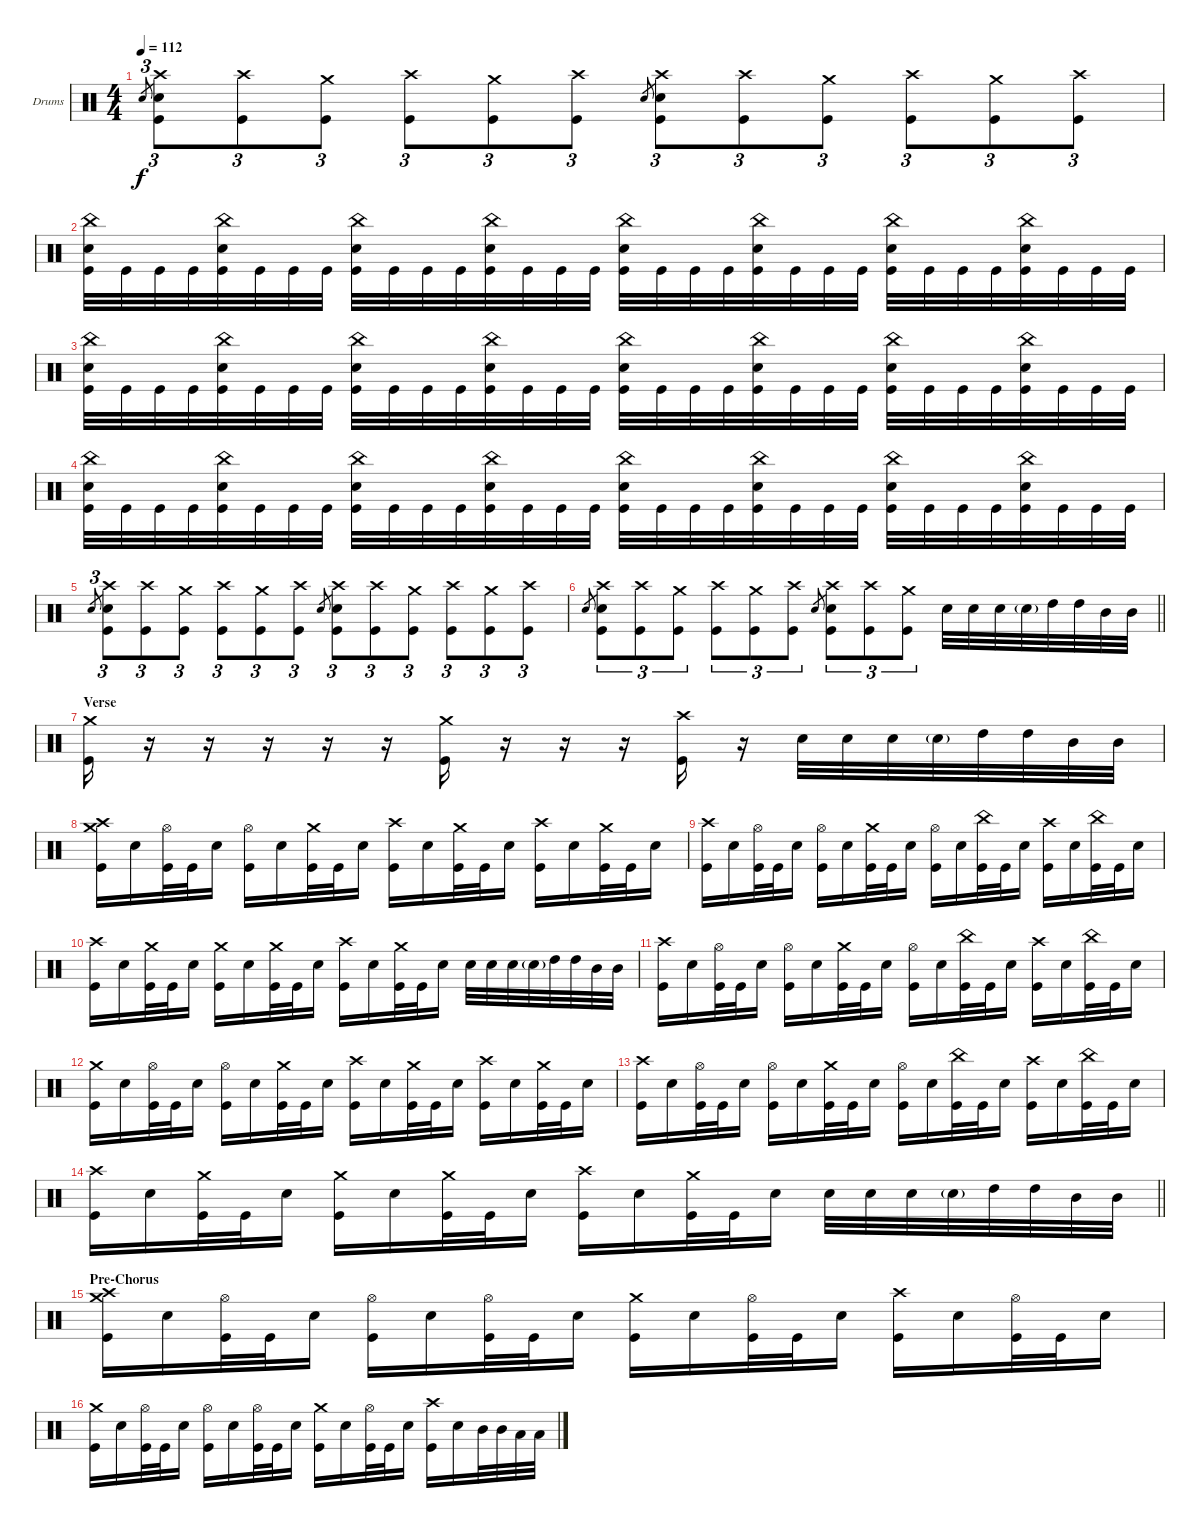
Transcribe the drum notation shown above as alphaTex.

\bracketExtendMode groupsimilarinstruments
\firstSystemTrackNameOrientation horizontal
\otherSystemsTrackNameOrientation horizontal
\track ("Drumkit" "Drums") {instrument percussion}
\staff {score}
\articulation defaults
\ts (4 4)
\tempo 112
\clef neutral
\scale
0.333333
\ks c "Snare (hit) 2".8{tu (3 2) gr dy f}
("Kick (hit)" "Crash high (hit)" "Snare (hit) 2").8{tu (3 2)} ("Kick (hit)" "Crash high (hit)").8{tu (3 2)} ("Kick (hit)" "Crash medium (hit)").8{tu (3 2)} ("Kick (hit)" "Crash high (hit)").8{tu (3 2)} ("Kick (hit)" "Crash medium (hit)").8{tu (3 2)} ("Kick (hit)" "Crash high (hit)").8{tu (3 2)} "Snare (hit) 2".8{tu (3 2) gr} ("Kick (hit)" "Crash high (hit)" "Snare (hit) 2").8{tu (3 2)} ("Kick (hit)" "Crash high (hit)").8{tu (3 2)} ("Kick (hit)" "Crash medium (hit)").8{tu (3 2)} ("Kick (hit)" "Crash high (hit)").8{tu (3 2)} ("Kick (hit)" "Crash medium (hit)").8{tu (3 2)} ("Kick (hit)" "Crash high (hit)").8{tu (3 2)} |
\scale
0.333333 ("Kick (hit)" "China (hit)" "Snare (hit) 2").32 "Kick (hit)".32 "Kick (hit)".32 "Kick (hit)".32 ("Kick (hit)" "China (hit)" "Snare (hit) 2").32 "Kick (hit)".32 "Kick (hit)".32 "Kick (hit)".32 ("Kick (hit)" "China (hit)" "Snare (hit) 2").32 "Kick (hit)".32 "Kick (hit)".32 "Kick (hit)".32 ("Kick (hit)" "China (hit)" "Snare (hit) 2").32 "Kick (hit)".32 "Kick (hit)".32 "Kick (hit)".32 ("Kick (hit)" "China (hit)" "Snare (hit) 2").32 "Kick (hit)".32 "Kick (hit)".32 "Kick (hit)".32 ("Kick (hit)" "China (hit)" "Snare (hit) 2").32 "Kick (hit)".32 "Kick (hit)".32 "Kick (hit)".32 ("Kick (hit)" "China (hit)" "Snare (hit) 2").32 "Kick (hit)".32 "Kick (hit)".32 "Kick (hit)".32 ("Kick (hit)" "China (hit)" "Snare (hit) 2").32 "Kick (hit)".32 "Kick (hit)".32 "Kick (hit)".32 |
\scale
0.333333 ("Kick (hit)" "China (hit)" "Snare (hit) 2").32 "Kick (hit)".32 "Kick (hit)".32 "Kick (hit)".32 ("Kick (hit)" "China (hit)" "Snare (hit) 2").32 "Kick (hit)".32 "Kick (hit)".32 "Kick (hit)".32 ("Kick (hit)" "China (hit)" "Snare (hit) 2").32 "Kick (hit)".32 "Kick (hit)".32 "Kick (hit)".32 ("Kick (hit)" "China (hit)" "Snare (hit) 2").32 "Kick (hit)".32 "Kick (hit)".32 "Kick (hit)".32 ("Kick (hit)" "China (hit)" "Snare (hit) 2").32 "Kick (hit)".32 "Kick (hit)".32 "Kick (hit)".32 ("Kick (hit)" "China (hit)" "Snare (hit) 2").32 "Kick (hit)".32 "Kick (hit)".32 "Kick (hit)".32 ("Kick (hit)" "China (hit)" "Snare (hit) 2").32 "Kick (hit)".32 "Kick (hit)".32 "Kick (hit)".32 ("Kick (hit)" "China (hit)" "Snare (hit) 2").32 "Kick (hit)".32 "Kick (hit)".32 "Kick (hit)".32 |
\scale
0.333333 ("Kick (hit)" "China (hit)" "Snare (hit) 2").32 "Kick (hit)".32 "Kick (hit)".32 "Kick (hit)".32 ("Kick (hit)" "China (hit)" "Snare (hit) 2").32 "Kick (hit)".32 "Kick (hit)".32 "Kick (hit)".32 ("Kick (hit)" "China (hit)" "Snare (hit) 2").32 "Kick (hit)".32 "Kick (hit)".32 "Kick (hit)".32 ("Kick (hit)" "China (hit)" "Snare (hit) 2").32 "Kick (hit)".32 "Kick (hit)".32 "Kick (hit)".32 ("Kick (hit)" "China (hit)" "Snare (hit) 2").32 "Kick (hit)".32 "Kick (hit)".32 "Kick (hit)".32 ("Kick (hit)" "China (hit)" "Snare (hit) 2").32 "Kick (hit)".32 "Kick (hit)".32 "Kick (hit)".32 ("Kick (hit)" "China (hit)" "Snare (hit) 2").32 "Kick (hit)".32 "Kick (hit)".32 "Kick (hit)".32 ("Kick (hit)" "China (hit)" "Snare (hit) 2").32 "Kick (hit)".32 "Kick (hit)".32 "Kick (hit)".32 |
\scale
0.333333 "Snare (hit) 2".8{tu (3 2) gr} ("Kick (hit)" "Crash high (hit)" "Snare (hit) 2").8{tu (3 2)} ("Kick (hit)" "Crash high (hit)").8{tu (3 2)} ("Kick (hit)" "Crash medium (hit)").8{tu (3 2)} ("Kick (hit)" "Crash high (hit)").8{tu (3 2)} ("Kick (hit)" "Crash medium (hit)").8{tu (3 2)} ("Kick (hit)" "Crash high (hit)").8{tu (3 2)} "Snare (hit) 2".8{tu (3 2) gr} ("Kick (hit)" "Crash high (hit)" "Snare (hit) 2").8{tu (3 2)} ("Kick (hit)" "Crash high (hit)").8{tu (3 2)} ("Kick (hit)" "Crash medium (hit)").8{tu (3 2)} ("Kick (hit)" "Crash high (hit)").8{tu (3 2)} ("Kick (hit)" "Crash medium (hit)").8{tu (3 2)} ("Kick (hit)" "Crash high (hit)").8{tu (3 2)} |
\scale
0.333333
\barLineRight lightlight "Snare (hit) 2".8{tu (3 2) gr}
("Kick (hit)" "Crash high (hit)" "Snare (hit) 2").8{tu (3 2)} ("Kick (hit)" "Crash high (hit)").8{tu (3 2)} ("Kick (hit)" "Crash medium (hit)").8{tu (3 2)} ("Kick (hit)" "Crash high (hit)").8{tu (3 2)} ("Kick (hit)" "Crash medium (hit)").8{tu (3 2)} ("Kick (hit)" "Crash high (hit)").8{tu (3 2)} "Snare (hit) 2".8{tu (3 2) gr} ("Kick (hit)" "Crash high (hit)" "Snare (hit) 2").8{tu (3 2)} ("Kick (hit)" "Crash high (hit)").8{tu (3 2)} ("Kick (hit)" "Crash medium (hit)").8{tu (3 2)} "Snare (hit) 2".32 "Snare (hit) 2".32 "Snare (hit) 2".32 "Snare (hit) 2"{g}.32 "High Tom (hit)".32 "High Tom (hit)".32 "Mid Tom (hit)".32 "Mid Tom (hit)".32 |
\section ("" "Verse")
\scale
0.333333 ("Kick (hit)" "Crash medium (hit)").16 r.16 r.16 r.16 r.16 r.16 ("Kick (hit)" "Crash medium (hit)").16 r.16 r.16 r.16 ("Kick (hit)" "Crash high (hit)").16 r.16 "Snare (hit) 2".32 "Snare (hit) 2".32 "Snare (hit) 2".32 "Snare (hit) 2"{g}.32 "High Tom (hit)".32 "High Tom (hit)".32 "Mid Tom (hit)".32 "Mid Tom (hit)".32 |
\scale
0.333333 ("Kick (hit)" "Crash medium (hit)" "Crash high (hit)").16 "Snare (hit) 2".16 ("Kick (hit)" "Hi-Hat (open)").32 "Kick (hit)".32 "Snare (hit) 2".16 ("Kick (hit)" "Hi-Hat (open)").16 "Snare (hit) 2".16 ("Kick (hit)" "Crash medium (hit)").32 "Kick (hit)".32 "Snare (hit) 2".16 ("Kick (hit)" "Crash high (hit)").16 "Snare (hit) 2".16 ("Kick (hit)" "Crash medium (hit)").32 "Kick (hit)".32 "Snare (hit) 2".16 ("Kick (hit)" "Crash high (hit)").16 "Snare (hit) 2".16 ("Kick (hit)" "Crash medium (hit)").32 "Kick (hit)".32 "Snare (hit) 2".16 |
\scale
0.333333 ("Kick (hit)" "Crash high (hit)").16 "Snare (hit) 2".16 ("Kick (hit)" "Hi-Hat (open)").32 "Kick (hit)".32 "Snare (hit) 2".16 ("Kick (hit)" "Hi-Hat (open)").16 "Snare (hit) 2".16 ("Kick (hit)" "Crash medium (hit)").32 "Kick (hit)".32 "Snare (hit) 2".16 ("Kick (hit)" "Hi-Hat (open)").16 "Snare (hit) 2".16 ("Kick (hit)" "China (hit)").32 "Kick (hit)".32 "Snare (hit) 2".16 ("Kick (hit)" "Crash high (hit)").16 "Snare (hit) 2".16 ("Kick (hit)" "China (hit)").32 "Kick (hit)".32 "Snare (hit) 2".16 |
\scale
0.333333 ("Kick (hit)" "Crash high (hit)").16 "Snare (hit) 2".16 ("Kick (hit)" "Crash medium (hit)").32 "Kick (hit)".32 "Snare (hit) 2".16 ("Kick (hit)" "Crash medium (hit)").16 "Snare (hit) 2".16 ("Kick (hit)" "Crash medium (hit)").32 "Kick (hit)".32 "Snare (hit) 2".16 ("Kick (hit)" "Crash high (hit)").16 "Snare (hit) 2".16 ("Kick (hit)" "Crash medium (hit)").32 "Kick (hit)".32 "Snare (hit) 2".16 "Snare (hit) 2".32 "Snare (hit) 2".32 "Snare (hit) 2".32 "Snare (hit) 2"{g}.32 "High Tom (hit)".32 "High Tom (hit)".32 "Mid Tom (hit)".32 "Mid Tom (hit)".32 |
\scale
0.333333 ("Kick (hit)" "Crash high (hit)").16 "Snare (hit) 2".16 ("Kick (hit)" "Hi-Hat (open)").32 "Kick (hit)".32 "Snare (hit) 2".16 ("Kick (hit)" "Hi-Hat (open)").16 "Snare (hit) 2".16 ("Kick (hit)" "Crash medium (hit)").32 "Kick (hit)".32 "Snare (hit) 2".16 ("Kick (hit)" "Hi-Hat (open)").16 "Snare (hit) 2".16 ("Kick (hit)" "China (hit)").32 "Kick (hit)".32 "Snare (hit) 2".16 ("Kick (hit)" "Crash high (hit)").16 "Snare (hit) 2".16 ("Kick (hit)" "China (hit)").32 "Kick (hit)".32 "Snare (hit) 2".16 |
\scale
0.333333 ("Kick (hit)" "Crash medium (hit)").16 "Snare (hit) 2".16 ("Kick (hit)" "Hi-Hat (open)").32 "Kick (hit)".32 "Snare (hit) 2".16 ("Kick (hit)" "Hi-Hat (open)").16 "Snare (hit) 2".16 ("Kick (hit)" "Crash medium (hit)").32 "Kick (hit)".32 "Snare (hit) 2".16 ("Kick (hit)" "Crash high (hit)").16 "Snare (hit) 2".16 ("Kick (hit)" "Crash medium (hit)").32 "Kick (hit)".32 "Snare (hit) 2".16 ("Kick (hit)" "Crash high (hit)").16 "Snare (hit) 2".16 ("Kick (hit)" "Crash medium (hit)").32 "Kick (hit)".32 "Snare (hit) 2".16 |
\scale
0.333333 ("Kick (hit)" "Crash high (hit)").16 "Snare (hit) 2".16 ("Kick (hit)" "Hi-Hat (open)").32 "Kick (hit)".32 "Snare (hit) 2".16 ("Kick (hit)" "Hi-Hat (open)").16 "Snare (hit) 2".16 ("Kick (hit)" "Crash medium (hit)").32 "Kick (hit)".32 "Snare (hit) 2".16 ("Kick (hit)" "Hi-Hat (open)").16 "Snare (hit) 2".16 ("Kick (hit)" "China (hit)").32 "Kick (hit)".32 "Snare (hit) 2".16 ("Kick (hit)" "Crash high (hit)").16 "Snare (hit) 2".16 ("Kick (hit)" "China (hit)").32 "Kick (hit)".32 "Snare (hit) 2".16 |
\scale
0.333333
\barLineRight lightlight
("Kick (hit)" "Crash high (hit)").16 "Snare (hit) 2".16 ("Kick (hit)" "Crash medium (hit)").32 "Kick (hit)".32 "Snare (hit) 2".16 ("Kick (hit)" "Crash medium (hit)").16 "Snare (hit) 2".16 ("Kick (hit)" "Crash medium (hit)").32 "Kick (hit)".32 "Snare (hit) 2".16 ("Kick (hit)" "Crash high (hit)").16 "Snare (hit) 2".16 ("Kick (hit)" "Crash medium (hit)").32 "Kick (hit)".32 "Snare (hit) 2".16 "Snare (hit) 2".32 "Snare (hit) 2".32 "Snare (hit) 2".32 "Snare (hit) 2"{g}.32 "High Tom (hit)".32 "High Tom (hit)".32 "Mid Tom (hit)".32 "Mid Tom (hit)".32 |
\section ("" "Pre-Chorus")
\scale
0.333333 ("Kick (hit)" "Crash medium (hit)" "Crash high (hit)").16 "Snare (hit) 2".16 ("Kick (hit)" "Hi-Hat (open)").32 "Kick (hit)".32 "Snare (hit) 2".16 ("Kick (hit)" "Hi-Hat (open)").16 "Snare (hit) 2".16 ("Kick (hit)" "Hi-Hat (open)").32 "Kick (hit)".32 "Snare (hit) 2".16 ("Kick (hit)" "Crash medium (hit)").16 "Snare (hit) 2".16 ("Kick (hit)" "Hi-Hat (open)").32 "Kick (hit)".32 "Snare (hit) 2".16 ("Kick (hit)" "Crash high (hit)").16 "Snare (hit) 2".16 ("Kick (hit)" "Hi-Hat (open)").32 "Kick (hit)".32 "Snare (hit) 2".16 |
\scale
0.333333 ("Kick (hit)" "Crash medium (hit)").16 "Snare (hit) 2".16 ("Kick (hit)" "Hi-Hat (open)").32 "Kick (hit)".32 "Snare (hit) 2".16 ("Kick (hit)" "Hi-Hat (open)").16 "Snare (hit) 2".16 ("Kick (hit)" "Hi-Hat (open)").32 "Kick (hit)".32 "Snare (hit) 2".16 ("Kick (hit)" "Crash medium (hit)").16 "Snare (hit) 2".16 ("Kick (hit)" "Hi-Hat (open)").32 "Kick (hit)".32 "Snare (hit) 2".16 ("Kick (hit)" "Crash high (hit)").16 "Snare (hit) 2".16 "Mid Tom (hit)".32 "Mid Tom (hit)".32 "Low Tom (hit)".32 "Low Tom (hit)".32
